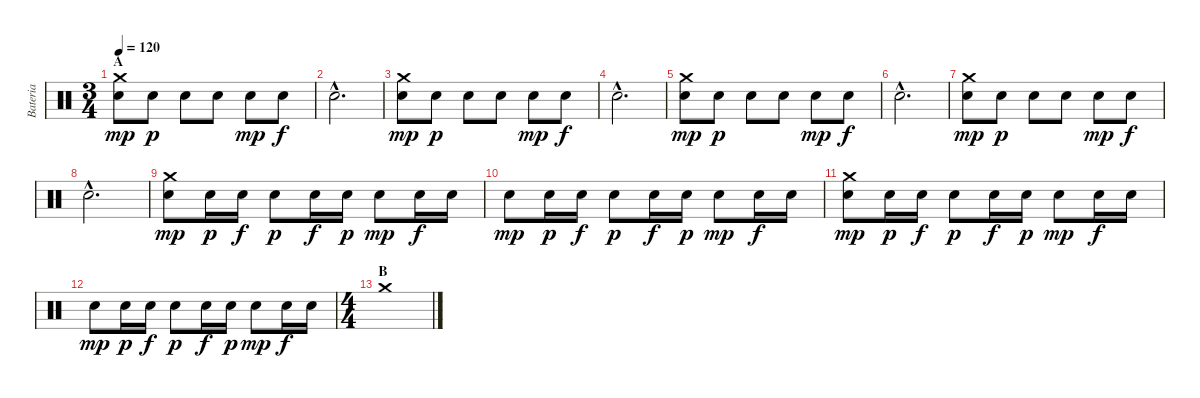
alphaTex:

\track ("Bateria" "Bateria") {instrument percussion}
\staff {score}
\articulation defaults
\ts (3 4)
\section ("" "A")
\tempo 120
\clef neutral
\ks c
("Electric Snare (hit)" "Crash medium (hit)").8{dy mp} "Electric Snare (hit)".8{dy p} "Electric Snare (hit)".8 "Electric Snare (hit)".8 "Electric Snare (hit)".8{dy mp} "Electric Snare (hit)".8{dy f} |
"Electric Snare (hit)"{hac}.2{d} |
("Electric Snare (hit)" "Crash medium (hit)").8{dy mp} "Electric Snare (hit)".8{dy p} "Electric Snare (hit)".8 "Electric Snare (hit)".8 "Electric Snare (hit)".8{dy mp} "Electric Snare (hit)".8{dy f} |
"Electric Snare (hit)"{hac}.2{d} |
("Electric Snare (hit)" "Crash medium (hit)").8{dy mp} "Electric Snare (hit)".8{dy p} "Electric Snare (hit)".8 "Electric Snare (hit)".8 "Electric Snare (hit)".8{dy mp} "Electric Snare (hit)".8{dy f} |
"Electric Snare (hit)"{hac}.2{d} |
("Electric Snare (hit)" "Crash medium (hit)").8{dy mp} "Electric Snare (hit)".8{dy p} "Electric Snare (hit)".8 "Electric Snare (hit)".8 "Electric Snare (hit)".8{dy mp} "Electric Snare (hit)".8{dy f} |
"Electric Snare (hit)"{hac}.2{d} |
("Electric Snare (hit)" "Crash medium (hit)").8{dy mp} "Electric Snare (hit)".16{dy p} "Electric Snare (hit)".16{dy f} "Electric Snare (hit)".8{dy p} "Electric Snare (hit)".16{dy f} "Electric Snare (hit)".16{dy p} "Electric Snare (hit)".8{dy mp} "Electric Snare (hit)".16{dy f} "Electric Snare (hit)".16 |
"Electric Snare (hit)".8{dy mp} "Electric Snare (hit)".16{dy p} "Electric Snare (hit)".16{dy f} "Electric Snare (hit)".8{dy p} "Electric Snare (hit)".16{dy f} "Electric Snare (hit)".16{dy p} "Electric Snare (hit)".8{dy mp} "Electric Snare (hit)".16{dy f} "Electric Snare (hit)".16 |
("Electric Snare (hit)" "Crash medium (hit)").8{dy mp} "Electric Snare (hit)".16{dy p} "Electric Snare (hit)".16{dy f} "Electric Snare (hit)".8{dy p} "Electric Snare (hit)".16{dy f} "Electric Snare (hit)".16{dy p} "Electric Snare (hit)".8{dy mp} "Electric Snare (hit)".16{dy f} "Electric Snare (hit)".16 |
"Electric Snare (hit)".8{dy mp} "Electric Snare (hit)".16{dy p} "Electric Snare (hit)".16{dy f} "Electric Snare (hit)".8{dy p} "Electric Snare (hit)".16{dy f} "Electric Snare (hit)".16{dy p} "Electric Snare (hit)".8{dy mp} "Electric Snare (hit)".16{dy f} "Electric Snare (hit)".16 |
\ts (4 4)
\section ("" "B")
"Crash medium (hit)".1
